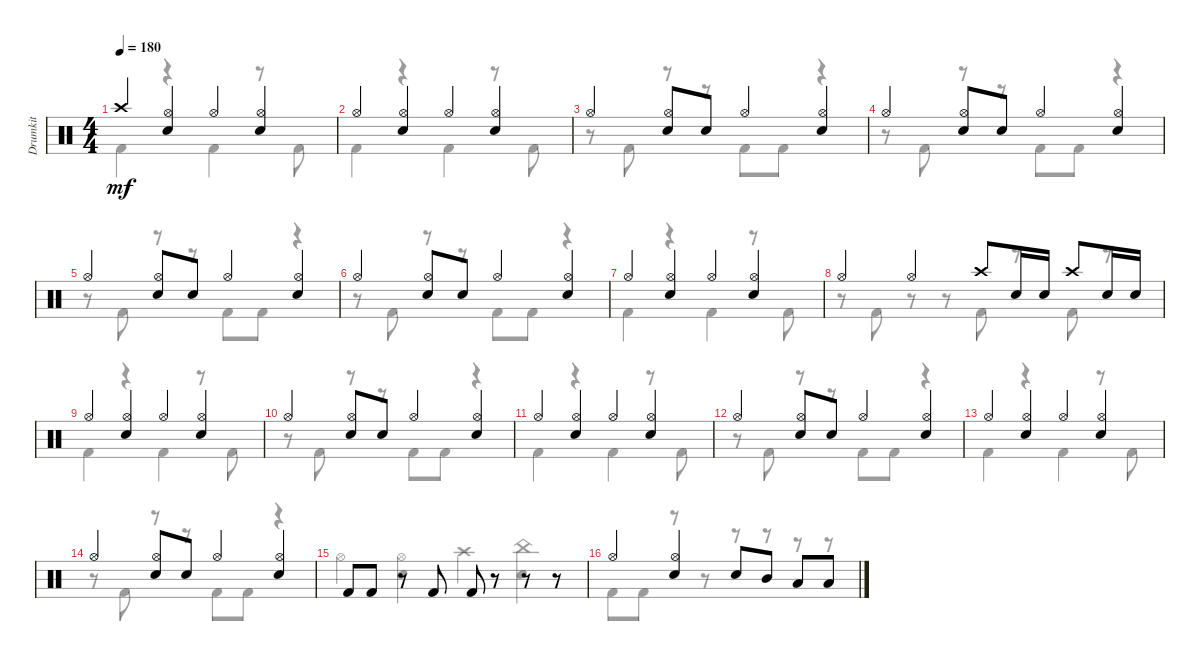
\track ("Drumkit" "Drumkit") {instrument percussion}
\staff {score}
\articulation defaults
\voice
\ts (4 4)
\tempo 180
\clef neutral
\ks c "Crash high (hit)".4{dy mf}
("Hi-Hat (open)" "Snare (hit) 2").4 "Hi-Hat (open)".4 ("Hi-Hat (open)" "Snare (hit) 2").4 |
"Hi-Hat (open)".4 ("Hi-Hat (open)" "Snare (hit) 2").4 "Hi-Hat (open)".4 ("Hi-Hat (open)" "Snare (hit) 2").4 |
"Hi-Hat (open)".4 ("Hi-Hat (open)" "Snare (hit) 2").8 "Snare (hit) 2".8 "Hi-Hat (open)".4 ("Hi-Hat (open)" "Snare (hit) 2").4 |
"Hi-Hat (open)".4 ("Hi-Hat (open)" "Snare (hit) 2").8 "Snare (hit) 2".8 "Hi-Hat (open)".4 ("Hi-Hat (open)" "Snare (hit) 2").4 |
"Hi-Hat (open)".4 ("Hi-Hat (open)" "Snare (hit) 2").8 "Snare (hit) 2".8 "Hi-Hat (open)".4 ("Hi-Hat (open)" "Snare (hit) 2").4 |
"Hi-Hat (open)".4 ("Hi-Hat (open)" "Snare (hit) 2").8 "Snare (hit) 2".8 "Hi-Hat (open)".4 ("Hi-Hat (open)" "Snare (hit) 2").4 |
"Hi-Hat (open)".4 ("Hi-Hat (open)" "Snare (hit) 2").4 "Hi-Hat (open)".4 ("Hi-Hat (open)" "Snare (hit) 2").4 |
"Hi-Hat (open)".4 "Hi-Hat (open)".4 "Crash high (hit)".8 "Snare (hit) 2".16 "Snare (hit) 2".16 "Crash high (hit)".8 "Snare (hit) 2".16 "Snare (hit) 2".16 |
"Hi-Hat (open)".4 ("Hi-Hat (open)" "Snare (hit) 2").4 "Hi-Hat (open)".4 ("Hi-Hat (open)" "Snare (hit) 2").4 |
"Hi-Hat (open)".4 ("Hi-Hat (open)" "Snare (hit) 2").8 "Snare (hit) 2".8 "Hi-Hat (open)".4 ("Hi-Hat (open)" "Snare (hit) 2").4 |
"Hi-Hat (open)".4 ("Hi-Hat (open)" "Snare (hit) 2").4 "Hi-Hat (open)".4 ("Hi-Hat (open)" "Snare (hit) 2").4 |
"Hi-Hat (open)".4 ("Hi-Hat (open)" "Snare (hit) 2").8 "Snare (hit) 2".8 "Hi-Hat (open)".4 ("Hi-Hat (open)" "Snare (hit) 2").4 |
"Hi-Hat (open)".4 ("Hi-Hat (open)" "Snare (hit) 2").4 "Hi-Hat (open)".4 ("Hi-Hat (open)" "Snare (hit) 2").4 |
"Hi-Hat (open)".4 ("Hi-Hat (open)" "Snare (hit) 2").8 "Snare (hit) 2".8 "Hi-Hat (open)".4 ("Hi-Hat (open)" "Snare (hit) 2").4 |
"Kick (hit) 2".8 "Kick (hit) 2".8 r.8 "Kick (hit) 2".8 "Kick (hit) 2".8 r.8 r.8 r.8 |
"Hi-Hat (open)".4 ("Hi-Hat (open)" "Snare (hit) 2").4 "Snare (hit) 2".8 "Mid Tom (hit)".8 "Low Tom (hit)".8 "Low Tom (hit)".8
\voice
\clef neutral
\ottava regular
\simile none
\ks c "Kick (hit) 2".4{dy mf}
r.4 "Kick (hit) 2".4 r.8 "Kick (hit) 2".8 |
"Kick (hit) 2".4 r.4 "Kick (hit) 2".4 r.8 "Kick (hit) 2".8 |
r.8 "Kick (hit) 2".8 r.8 r.8 "Kick (hit) 2".8 "Kick (hit) 2".8 r.4 |
r.8 "Kick (hit) 2".8 r.8 r.8 "Kick (hit) 2".8 "Kick (hit) 2".8 r.4 |
r.8 "Kick (hit) 2".8 r.8 r.8 "Kick (hit) 2".8 "Kick (hit) 2".8 r.4 |
r.8 "Kick (hit) 2".8 r.8 r.8 "Kick (hit) 2".8 "Kick (hit) 2".8 r.4 |
"Kick (hit) 2".4 r.4 "Kick (hit) 2".4 r.8 "Kick (hit) 2".8 |
r.8 "Kick (hit) 2".8 r.8 r.8 "Kick (hit) 2".8 r.8 "Kick (hit) 2".8 r.8 |
"Kick (hit) 2".4 r.4 "Kick (hit) 2".4 r.8 "Kick (hit) 2".8 |
r.8 "Kick (hit) 2".8 r.8 r.8 "Kick (hit) 2".8 "Kick (hit) 2".8 r.4 |
"Kick (hit) 2".4 r.4 "Kick (hit) 2".4 r.8 "Kick (hit) 2".8 |
r.8 "Kick (hit) 2".8 r.8 r.8 "Kick (hit) 2".8 "Kick (hit) 2".8 r.4 |
"Kick (hit) 2".4 r.4 "Kick (hit) 2".4 r.8 "Kick (hit) 2".8 |
r.8 "Kick (hit) 2".8 r.8 r.8 "Kick (hit) 2".8 "Kick (hit) 2".8 r.4 |
"Hi-Hat (open)".4 ("Hi-Hat (open)" "Snare (hit) 2").4 "Crash high (hit)".4 ("China (hit)" "Snare (hit) 2").4 |
"Kick (hit) 2".8 "Kick (hit) 2".8 r.8 r.8 r.8 r.8 r.8 r.8
